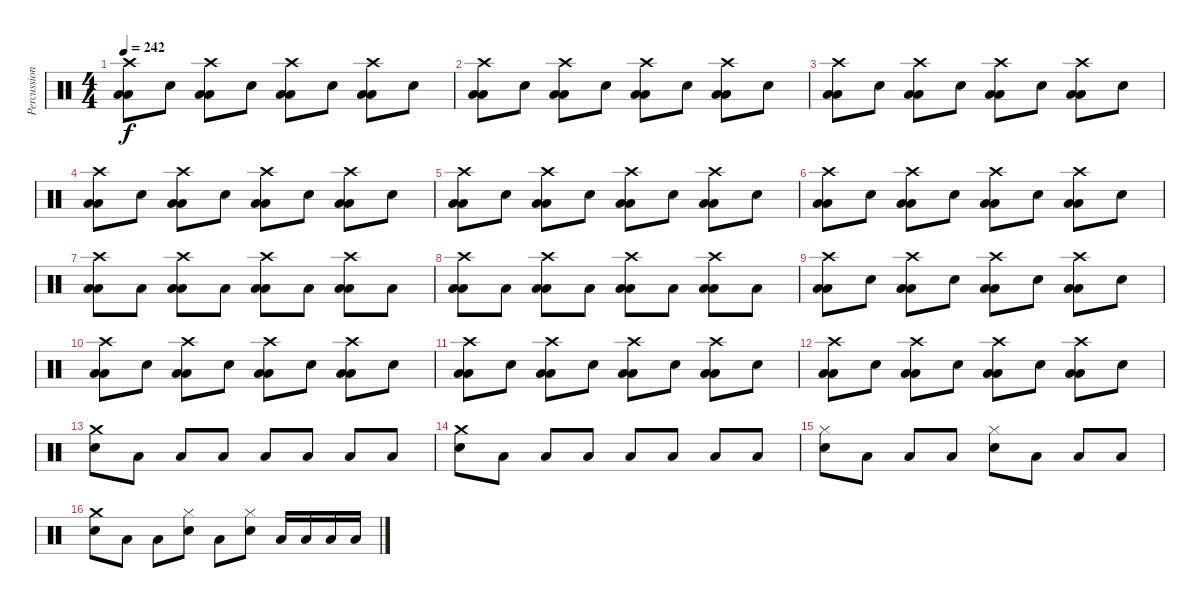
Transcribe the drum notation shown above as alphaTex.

\track ("Percussion" "Percussion") {instrument percussion}
\staff {score}
\articulation defaults
\ts (4 4)
\tempo 242
\clef neutral
\ks c
("Crash high (hit)" "Low Floor Tom (hit)" "Low Tom (hit)").8{dy f} "Electric Snare (hit)".8 ("Crash high (hit)" "Low Floor Tom (hit)" "Low Tom (hit)").8 "Electric Snare (hit)".8 ("Crash high (hit)" "Low Floor Tom (hit)" "Low Tom (hit)").8 "Electric Snare (hit)".8 ("Crash high (hit)" "Low Floor Tom (hit)" "Low Tom (hit)").8 "Electric Snare (hit)".8 |
("Crash high (hit)" "Low Floor Tom (hit)" "Low Tom (hit)").8 "Electric Snare (hit)".8 ("Crash high (hit)" "Low Floor Tom (hit)" "Low Tom (hit)").8 "Electric Snare (hit)".8 ("Crash high (hit)" "Low Floor Tom (hit)" "Low Tom (hit)").8 "Electric Snare (hit)".8 ("Crash high (hit)" "Low Floor Tom (hit)" "Low Tom (hit)").8 "Electric Snare (hit)".8 |
("Crash high (hit)" "Low Floor Tom (hit)" "Low Tom (hit)").8 "Electric Snare (hit)".8 ("Crash high (hit)" "Low Floor Tom (hit)" "Low Tom (hit)").8 "Electric Snare (hit)".8 ("Crash high (hit)" "Low Floor Tom (hit)" "Low Tom (hit)").8 "Electric Snare (hit)".8 ("Crash high (hit)" "Low Floor Tom (hit)" "Low Tom (hit)").8 "Electric Snare (hit)".8 |
("Crash high (hit)" "Low Floor Tom (hit)" "Low Tom (hit)").8 "Electric Snare (hit)".8 ("Crash high (hit)" "Low Floor Tom (hit)" "Low Tom (hit)").8 "Electric Snare (hit)".8 ("Crash high (hit)" "Low Floor Tom (hit)" "Low Tom (hit)").8 "Electric Snare (hit)".8 ("Crash high (hit)" "Low Floor Tom (hit)" "Low Tom (hit)").8 "Electric Snare (hit)".8 |
("Crash high (hit)" "Low Floor Tom (hit)" "Low Tom (hit)").8 "Electric Snare (hit)".8 ("Crash high (hit)" "Low Floor Tom (hit)" "Low Tom (hit)").8 "Electric Snare (hit)".8 ("Crash high (hit)" "Low Floor Tom (hit)" "Low Tom (hit)").8 "Electric Snare (hit)".8 ("Crash high (hit)" "Low Floor Tom (hit)" "Low Tom (hit)").8 "Electric Snare (hit)".8 |
("Crash high (hit)" "Low Floor Tom (hit)" "Low Tom (hit)").8 "Electric Snare (hit)".8 ("Crash high (hit)" "Low Floor Tom (hit)" "Low Tom (hit)").8 "Electric Snare (hit)".8 ("Crash high (hit)" "Low Floor Tom (hit)" "Low Tom (hit)").8 "Electric Snare (hit)".8 ("Crash high (hit)" "Low Floor Tom (hit)" "Low Tom (hit)").8 "Electric Snare (hit)".8 |
("Crash high (hit)" "Low Floor Tom (hit)" "Low Tom (hit)").8 "Low Floor Tom (hit)".8 ("Crash high (hit)" "Low Floor Tom (hit)" "Low Tom (hit)").8 "Low Floor Tom (hit)".8 ("Crash high (hit)" "Low Floor Tom (hit)" "Low Tom (hit)").8 "Low Floor Tom (hit)".8 ("Crash high (hit)" "Low Floor Tom (hit)" "Low Tom (hit)").8 "Low Floor Tom (hit)".8 |
("Crash high (hit)" "Low Floor Tom (hit)" "Low Tom (hit)").8 "Low Floor Tom (hit)".8 ("Crash high (hit)" "Low Floor Tom (hit)" "Low Tom (hit)").8 "Low Floor Tom (hit)".8 ("Crash high (hit)" "Low Floor Tom (hit)" "Low Tom (hit)").8 "Low Floor Tom (hit)".8 ("Crash high (hit)" "Low Floor Tom (hit)" "Low Tom (hit)").8 "Low Floor Tom (hit)".8 |
("Crash high (hit)" "Low Floor Tom (hit)" "Low Tom (hit)").8 "Electric Snare (hit)".8 ("Crash high (hit)" "Low Floor Tom (hit)" "Low Tom (hit)").8 "Electric Snare (hit)".8 ("Crash high (hit)" "Low Floor Tom (hit)" "Low Tom (hit)").8 "Electric Snare (hit)".8 ("Crash high (hit)" "Low Floor Tom (hit)" "Low Tom (hit)").8 "Electric Snare (hit)".8 |
("Crash high (hit)" "Low Floor Tom (hit)" "Low Tom (hit)").8 "Electric Snare (hit)".8 ("Crash high (hit)" "Low Floor Tom (hit)" "Low Tom (hit)").8 "Electric Snare (hit)".8 ("Crash high (hit)" "Low Floor Tom (hit)" "Low Tom (hit)").8 "Electric Snare (hit)".8 ("Crash high (hit)" "Low Floor Tom (hit)" "Low Tom (hit)").8 "Electric Snare (hit)".8 |
("Crash high (hit)" "Low Floor Tom (hit)" "Low Tom (hit)").8 "Electric Snare (hit)".8 ("Crash high (hit)" "Low Floor Tom (hit)" "Low Tom (hit)").8 "Electric Snare (hit)".8 ("Crash high (hit)" "Low Floor Tom (hit)" "Low Tom (hit)").8 "Electric Snare (hit)".8 ("Crash high (hit)" "Low Floor Tom (hit)" "Low Tom (hit)").8 "Electric Snare (hit)".8 |
("Crash high (hit)" "Low Floor Tom (hit)" "Low Tom (hit)").8 "Electric Snare (hit)".8 ("Crash high (hit)" "Low Floor Tom (hit)" "Low Tom (hit)").8 "Electric Snare (hit)".8 ("Crash high (hit)" "Low Floor Tom (hit)" "Low Tom (hit)").8 "Electric Snare (hit)".8 ("Crash high (hit)" "Low Floor Tom (hit)" "Low Tom (hit)").8 "Electric Snare (hit)".8 |
("Electric Snare (hit)" "Crash medium (hit)").8 "Low Tom (hit)".8 "Low Tom (hit)".8 "Low Tom (hit)".8 "Low Tom (hit)".8 "Low Tom (hit)".8 "Low Tom (hit)".8 "Low Tom (hit)".8 |
("Electric Snare (hit)" "Crash medium (hit)").8 "Low Tom (hit)".8 "Low Tom (hit)".8 "Low Tom (hit)".8 "Low Tom (hit)".8 "Low Tom (hit)".8 "Low Tom (hit)".8 "Low Tom (hit)".8 |
("Electric Snare (hit)" "Hi-Hat (closed)").8 "Low Tom (hit)".8 "Low Tom (hit)".8 "Low Tom (hit)".8 ("Electric Snare (hit)" "Hi-Hat (closed)").8 "Low Tom (hit)".8 "Low Tom (hit)".8 "Low Tom (hit)".8 |
("Electric Snare (hit)" "Crash medium (hit)").8 "Low Tom (hit)".8 "Low Tom (hit)".8 ("Electric Snare (hit)" "Hi-Hat (closed)").8 "Low Tom (hit)".8 ("Electric Snare (hit)" "Hi-Hat (closed)").8 "Low Tom (hit)".16 "Low Tom (hit)".16 "Low Tom (hit)".16 "Low Tom (hit)".16
